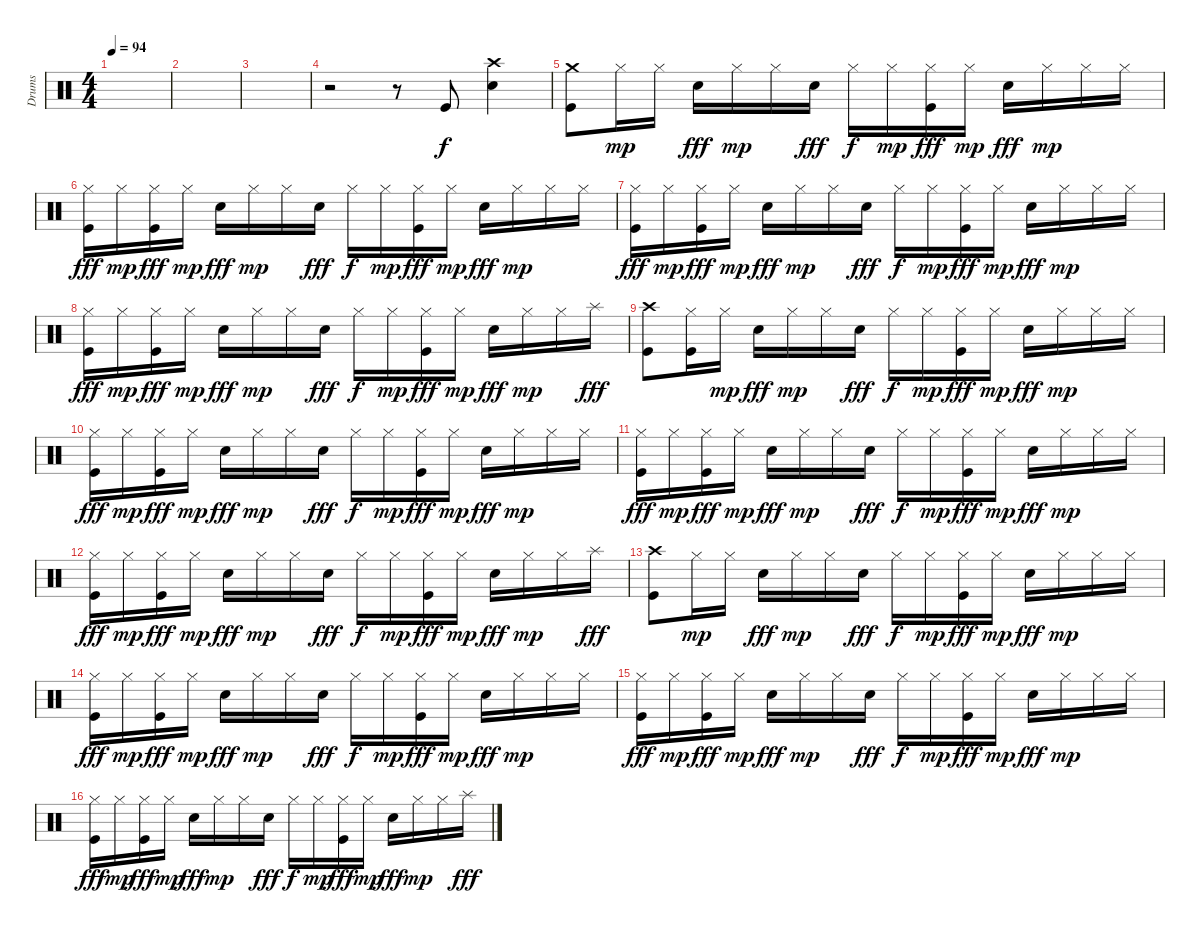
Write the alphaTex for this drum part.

\track ("Drums" "Drums") {instrument percussion}
\staff {score}
\articulation defaults
\ts (4 4)
\tempo 94
\clef neutral
\ks c
|
|
|
r.2 r.8 "Kick (hit)".8 ("Crash high (hit)" "Snare (hit) 2").4 |
("Crash medium (hit)" "Kick (hit)").8 "Hi-Hat (closed)".16{dy mp} "Hi-Hat (closed)".16 "Snare (hit) 2".16{dy fff} "Hi-Hat (closed)".16{dy mp} "Hi-Hat (closed)".16 "Snare (hit) 2".16{dy fff} "Hi-Hat (closed)".16{dy f} "Hi-Hat (closed)".16{dy mp} ("Hi-Hat (closed)" "Kick (hit)").16{dy fff} "Hi-Hat (closed)".16{dy mp} "Snare (hit) 2".16{dy fff} "Hi-Hat (closed)".16{dy mp} "Hi-Hat (closed)".16 "Hi-Hat (closed)".16 |
("Hi-Hat (closed)" "Kick (hit)").16{dy fff} "Hi-Hat (closed)".16{dy mp} ("Hi-Hat (closed)" "Kick (hit)").16{dy fff} "Hi-Hat (closed)".16{dy mp} "Snare (hit) 2".16{dy fff} "Hi-Hat (closed)".16{dy mp} "Hi-Hat (closed)".16 "Snare (hit) 2".16{dy fff} "Hi-Hat (closed)".16{dy f} "Hi-Hat (closed)".16{dy mp} ("Hi-Hat (closed)" "Kick (hit)").16{dy fff} "Hi-Hat (closed)".16{dy mp} "Snare (hit) 2".16{dy fff} "Hi-Hat (closed)".16{dy mp} "Hi-Hat (closed)".16 "Hi-Hat (closed)".16 |
("Hi-Hat (closed)" "Kick (hit)").16{dy fff} "Hi-Hat (closed)".16{dy mp} ("Hi-Hat (closed)" "Kick (hit)").16{dy fff} "Hi-Hat (closed)".16{dy mp} "Snare (hit) 2".16{dy fff} "Hi-Hat (closed)".16{dy mp} "Hi-Hat (closed)".16 "Snare (hit) 2".16{dy fff} "Hi-Hat (closed)".16{dy f} "Hi-Hat (closed)".16{dy mp} ("Hi-Hat (closed)" "Kick (hit)").16{dy fff} "Hi-Hat (closed)".16{dy mp} "Snare (hit) 2".16{dy fff} "Hi-Hat (closed)".16{dy mp} "Hi-Hat (closed)".16 "Hi-Hat (closed)".16 |
("Hi-Hat (closed)" "Kick (hit)").16{dy fff} "Hi-Hat (closed)".16{dy mp} ("Hi-Hat (closed)" "Kick (hit)").16{dy fff} "Hi-Hat (closed)".16{dy mp} "Snare (hit) 2".16{dy fff} "Hi-Hat (closed)".16{dy mp} "Hi-Hat (closed)".16 "Snare (hit) 2".16{dy fff} "Hi-Hat (closed)".16{dy f} "Hi-Hat (closed)".16{dy mp} ("Hi-Hat (closed)" "Kick (hit)").16{dy fff} "Hi-Hat (closed)".16{dy mp} "Snare (hit) 2".16{dy fff} "Hi-Hat (closed)".16{dy mp} "Hi-Hat (closed)".16 "Splash (hit)".16{dy fff} |
("Crash high (hit)" "Kick (hit)").8 ("Hi-Hat (closed)" "Kick (hit)").16 "Hi-Hat (closed)".16{dy mp} "Snare (hit) 2".16{dy fff} "Hi-Hat (closed)".16{dy mp} "Hi-Hat (closed)".16 "Snare (hit) 2".16{dy fff} "Hi-Hat (closed)".16{dy f} "Hi-Hat (closed)".16{dy mp} ("Hi-Hat (closed)" "Kick (hit)").16{dy fff} "Hi-Hat (closed)".16{dy mp} "Snare (hit) 2".16{dy fff} "Hi-Hat (closed)".16{dy mp} "Hi-Hat (closed)".16 "Hi-Hat (closed)".16 |
("Hi-Hat (closed)" "Kick (hit)").16{dy fff} "Hi-Hat (closed)".16{dy mp} ("Hi-Hat (closed)" "Kick (hit)").16{dy fff} "Hi-Hat (closed)".16{dy mp} "Snare (hit) 2".16{dy fff} "Hi-Hat (closed)".16{dy mp} "Hi-Hat (closed)".16 "Snare (hit) 2".16{dy fff} "Hi-Hat (closed)".16{dy f} "Hi-Hat (closed)".16{dy mp} ("Hi-Hat (closed)" "Kick (hit)").16{dy fff} "Hi-Hat (closed)".16{dy mp} "Snare (hit) 2".16{dy fff} "Hi-Hat (closed)".16{dy mp} "Hi-Hat (closed)".16 "Hi-Hat (closed)".16 |
("Hi-Hat (closed)" "Kick (hit)").16{dy fff} "Hi-Hat (closed)".16{dy mp} ("Hi-Hat (closed)" "Kick (hit)").16{dy fff} "Hi-Hat (closed)".16{dy mp} "Snare (hit) 2".16{dy fff} "Hi-Hat (closed)".16{dy mp} "Hi-Hat (closed)".16 "Snare (hit) 2".16{dy fff} "Hi-Hat (closed)".16{dy f} "Hi-Hat (closed)".16{dy mp} ("Hi-Hat (closed)" "Kick (hit)").16{dy fff} "Hi-Hat (closed)".16{dy mp} "Snare (hit) 2".16{dy fff} "Hi-Hat (closed)".16{dy mp} "Hi-Hat (closed)".16 "Hi-Hat (closed)".16 |
("Hi-Hat (closed)" "Kick (hit)").16{dy fff} "Hi-Hat (closed)".16{dy mp} ("Hi-Hat (closed)" "Kick (hit)").16{dy fff} "Hi-Hat (closed)".16{dy mp} "Snare (hit) 2".16{dy fff} "Hi-Hat (closed)".16{dy mp} "Hi-Hat (closed)".16 "Snare (hit) 2".16{dy fff} "Hi-Hat (closed)".16{dy f} "Hi-Hat (closed)".16{dy mp} ("Hi-Hat (closed)" "Kick (hit)").16{dy fff} "Hi-Hat (closed)".16{dy mp} "Snare (hit) 2".16{dy fff} "Hi-Hat (closed)".16{dy mp} "Hi-Hat (closed)".16 "Splash (hit)".16{dy fff} |
("Crash high (hit)" "Kick (hit)").8 "Hi-Hat (closed)".16{dy mp} "Hi-Hat (closed)".16 "Snare (hit) 2".16{dy fff} "Hi-Hat (closed)".16{dy mp} "Hi-Hat (closed)".16 "Snare (hit) 2".16{dy fff} "Hi-Hat (closed)".16{dy f} "Hi-Hat (closed)".16{dy mp} ("Hi-Hat (closed)" "Kick (hit)").16{dy fff} "Hi-Hat (closed)".16{dy mp} "Snare (hit) 2".16{dy fff} "Hi-Hat (closed)".16{dy mp} "Hi-Hat (closed)".16 "Hi-Hat (closed)".16 |
("Hi-Hat (closed)" "Kick (hit)").16{dy fff} "Hi-Hat (closed)".16{dy mp} ("Hi-Hat (closed)" "Kick (hit)").16{dy fff} "Hi-Hat (closed)".16{dy mp} "Snare (hit) 2".16{dy fff} "Hi-Hat (closed)".16{dy mp} "Hi-Hat (closed)".16 "Snare (hit) 2".16{dy fff} "Hi-Hat (closed)".16{dy f} "Hi-Hat (closed)".16{dy mp} ("Hi-Hat (closed)" "Kick (hit)").16{dy fff} "Hi-Hat (closed)".16{dy mp} "Snare (hit) 2".16{dy fff} "Hi-Hat (closed)".16{dy mp} "Hi-Hat (closed)".16 "Hi-Hat (closed)".16 |
("Hi-Hat (closed)" "Kick (hit)").16{dy fff} "Hi-Hat (closed)".16{dy mp} ("Hi-Hat (closed)" "Kick (hit)").16{dy fff} "Hi-Hat (closed)".16{dy mp} "Snare (hit) 2".16{dy fff} "Hi-Hat (closed)".16{dy mp} "Hi-Hat (closed)".16 "Snare (hit) 2".16{dy fff} "Hi-Hat (closed)".16{dy f} "Hi-Hat (closed)".16{dy mp} ("Hi-Hat (closed)" "Kick (hit)").16{dy fff} "Hi-Hat (closed)".16{dy mp} "Snare (hit) 2".16{dy fff} "Hi-Hat (closed)".16{dy mp} "Hi-Hat (closed)".16 "Hi-Hat (closed)".16 |
("Hi-Hat (closed)" "Kick (hit)").16{dy fff} "Hi-Hat (closed)".16{dy mp} ("Hi-Hat (closed)" "Kick (hit)").16{dy fff} "Hi-Hat (closed)".16{dy mp} "Snare (hit) 2".16{dy fff} "Hi-Hat (closed)".16{dy mp} "Hi-Hat (closed)".16 "Snare (hit) 2".16{dy fff} "Hi-Hat (closed)".16{dy f} "Hi-Hat (closed)".16{dy mp} ("Hi-Hat (closed)" "Kick (hit)").16{dy fff} "Hi-Hat (closed)".16{dy mp} "Snare (hit) 2".16{dy fff} "Hi-Hat (closed)".16{dy mp} "Hi-Hat (closed)".16 "Splash (hit)".16{dy fff}
